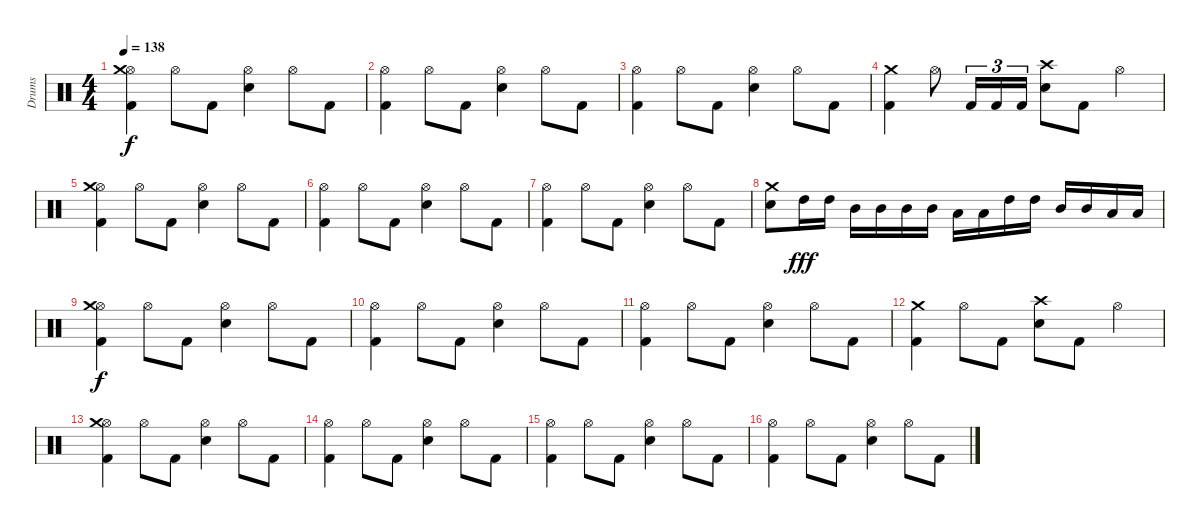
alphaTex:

\track ("Drums" "Drums") {instrument percussion}
\staff {score}
\articulation defaults
\ts (4 4)
\tempo 138
\clef neutral
\ks c
("Kick (hit) 2" "Hi-Hat (open)" "Crash medium (hit)").4{dy f} "Hi-Hat (open)".8 "Kick (hit) 2".8 ("Electric Snare (hit)" "Hi-Hat (open)").4 "Hi-Hat (open)".8 "Kick (hit) 2".8 |
("Kick (hit) 2" "Hi-Hat (open)").4 "Hi-Hat (open)".8 "Kick (hit) 2".8 ("Electric Snare (hit)" "Hi-Hat (open)").4 "Hi-Hat (open)".8 "Kick (hit) 2".8 |
("Kick (hit) 2" "Hi-Hat (open)").4 "Hi-Hat (open)".8 "Kick (hit) 2".8 ("Electric Snare (hit)" "Hi-Hat (open)").4 "Hi-Hat (open)".8 "Kick (hit) 2".8 |
("Kick (hit) 2" "Crash medium (hit)").4 "Hi-Hat (open)".8 "Kick (hit) 2".16{tu (3 2)} "Kick (hit) 2".16{tu (3 2)} "Kick (hit) 2".16{tu (3 2)} ("Electric Snare (hit)" "Crash high (hit)").8 "Kick (hit) 2".8 "Hi-Hat (open)".4 |
("Kick (hit) 2" "Hi-Hat (open)" "Crash medium (hit)").4 "Hi-Hat (open)".8 "Kick (hit) 2".8 ("Electric Snare (hit)" "Hi-Hat (open)").4 "Hi-Hat (open)".8 "Kick (hit) 2".8 |
("Kick (hit) 2" "Hi-Hat (open)").4 "Hi-Hat (open)".8 "Kick (hit) 2".8 ("Electric Snare (hit)" "Hi-Hat (open)").4 "Hi-Hat (open)".8 "Kick (hit) 2".8 |
("Kick (hit) 2" "Hi-Hat (open)").4 "Hi-Hat (open)".8 "Kick (hit) 2".8 ("Electric Snare (hit)" "Hi-Hat (open)").4 "Hi-Hat (open)".8 "Kick (hit) 2".8 |
("Electric Snare (hit)" "Crash medium (hit)").8 "High Tom (hit)".16{dy fff} "High Tom (hit)".16 "Mid Tom (hit)".16 "Mid Tom (hit)".16 "Mid Tom (hit)".16 "Mid Tom (hit)".16 "Low Tom (hit)".16 "Low Tom (hit)".16 "High Tom (hit)".16 "High Tom (hit)".16 "Mid Tom (hit)".16 "Mid Tom (hit)".16 "Low Tom (hit)".16 "Low Tom (hit)".16 |
("Kick (hit) 2" "Hi-Hat (open)" "Crash medium (hit)").4{dy f} "Hi-Hat (open)".8 "Kick (hit) 2".8 ("Electric Snare (hit)" "Hi-Hat (open)").4 "Hi-Hat (open)".8 "Kick (hit) 2".8 |
("Kick (hit) 2" "Hi-Hat (open)").4 "Hi-Hat (open)".8 "Kick (hit) 2".8 ("Electric Snare (hit)" "Hi-Hat (open)").4 "Hi-Hat (open)".8 "Kick (hit) 2".8 |
("Kick (hit) 2" "Hi-Hat (open)").4 "Hi-Hat (open)".8 "Kick (hit) 2".8 ("Electric Snare (hit)" "Hi-Hat (open)").4 "Hi-Hat (open)".8 "Kick (hit) 2".8 |
("Kick (hit) 2" "Crash medium (hit)").4 "Hi-Hat (open)".8 "Kick (hit) 2".8 ("Electric Snare (hit)" "Crash high (hit)").8 "Kick (hit) 2".8 "Hi-Hat (open)".4 |
("Kick (hit) 2" "Hi-Hat (open)" "Crash medium (hit)").4 "Hi-Hat (open)".8 "Kick (hit) 2".8 ("Electric Snare (hit)" "Hi-Hat (open)").4 "Hi-Hat (open)".8 "Kick (hit) 2".8 |
("Kick (hit) 2" "Hi-Hat (open)").4 "Hi-Hat (open)".8 "Kick (hit) 2".8 ("Electric Snare (hit)" "Hi-Hat (open)").4 "Hi-Hat (open)".8 "Kick (hit) 2".8 |
("Kick (hit) 2" "Hi-Hat (open)").4 "Hi-Hat (open)".8 "Kick (hit) 2".8 ("Electric Snare (hit)" "Hi-Hat (open)").4 "Hi-Hat (open)".8 "Kick (hit) 2".8 |
("Kick (hit) 2" "Hi-Hat (open)").4 "Hi-Hat (open)".8 "Kick (hit) 2".8 ("Electric Snare (hit)" "Hi-Hat (open)").4 "Hi-Hat (open)".8 "Kick (hit) 2".8
